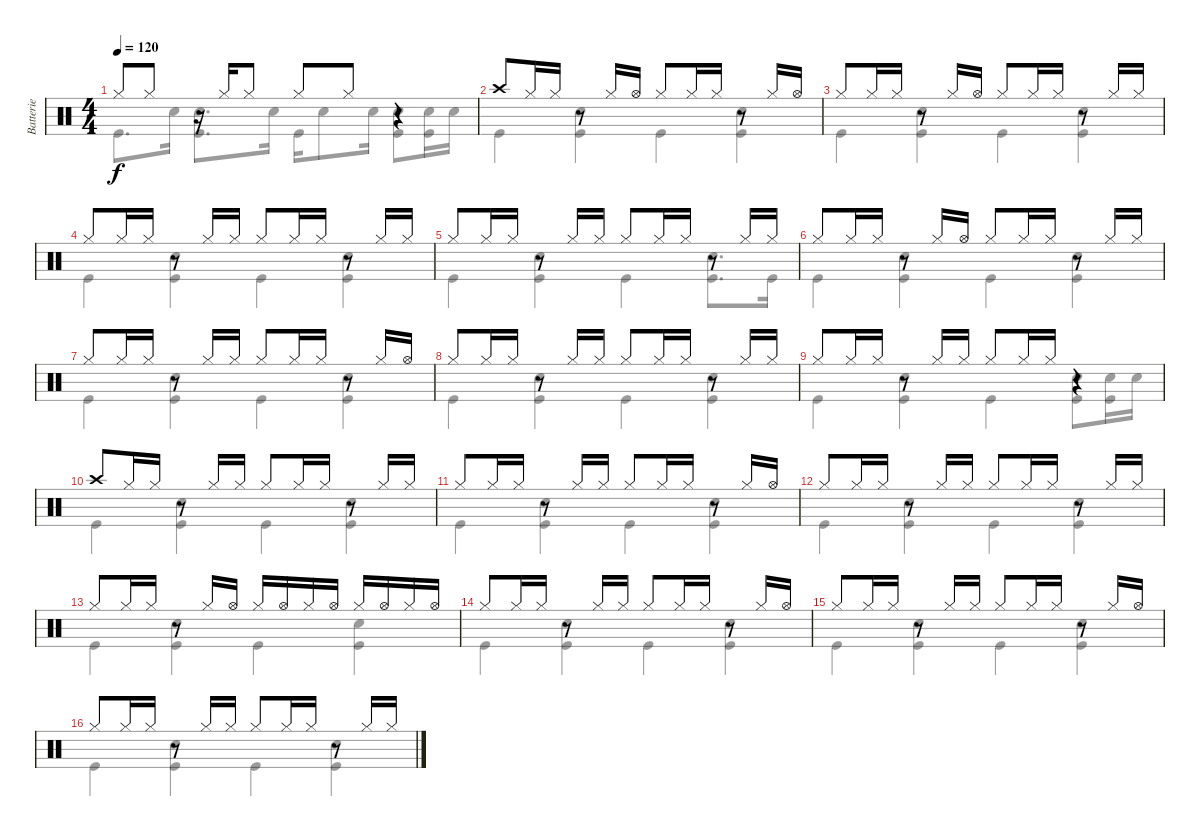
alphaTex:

\track ("Batterie" "Batterie") {instrument percussion}
\staff {score}
\articulation defaults
\voice
\ts (4 4)
\tempo 120
\clef neutral
\ks c "Hi-Hat (closed)".8{dy f} "Hi-Hat (closed)".8
r.16 "Hi-Hat (closed)".16 "Hi-Hat (closed)".8 "Hi-Hat (closed)".8 "Hi-Hat (closed)".8 r.4 |
"Crash high (hit)".8 "Hi-Hat (closed)".16 "Hi-Hat (closed)".16 r.8 "Hi-Hat (closed)".16 "Hi-Hat (open)".16 "Hi-Hat (closed)".8 "Hi-Hat (closed)".16 "Hi-Hat (closed)".16 r.8 "Hi-Hat (closed)".16 "Hi-Hat (open)".16 |
"Hi-Hat (closed)".8 "Hi-Hat (closed)".16 "Hi-Hat (closed)".16 r.8 "Hi-Hat (closed)".16 "Hi-Hat (open)".16 "Hi-Hat (closed)".8 "Hi-Hat (closed)".16 "Hi-Hat (closed)".16 r.8 "Hi-Hat (closed)".16 "Hi-Hat (closed)".16 |
"Hi-Hat (closed)".8 "Hi-Hat (closed)".16 "Hi-Hat (closed)".16 r.8 "Hi-Hat (closed)".16 "Hi-Hat (closed)".16 "Hi-Hat (closed)".8 "Hi-Hat (closed)".16 "Hi-Hat (closed)".16 r.8 "Hi-Hat (closed)".16 "Hi-Hat (closed)".16 |
"Hi-Hat (closed)".8 "Hi-Hat (closed)".16 "Hi-Hat (closed)".16 r.8 "Hi-Hat (closed)".16 "Hi-Hat (closed)".16 "Hi-Hat (closed)".8 "Hi-Hat (closed)".16 "Hi-Hat (closed)".16 r.8 "Hi-Hat (closed)".16 "Hi-Hat (closed)".16 |
"Hi-Hat (closed)".8 "Hi-Hat (closed)".16 "Hi-Hat (closed)".16 r.8 "Hi-Hat (closed)".16 "Hi-Hat (open)".16 "Hi-Hat (closed)".8 "Hi-Hat (closed)".16 "Hi-Hat (closed)".16 r.8 "Hi-Hat (closed)".16 "Hi-Hat (closed)".16 |
"Hi-Hat (closed)".8 "Hi-Hat (closed)".16 "Hi-Hat (closed)".16 r.8 "Hi-Hat (closed)".16 "Hi-Hat (closed)".16 "Hi-Hat (closed)".8 "Hi-Hat (closed)".16 "Hi-Hat (closed)".16 r.8 "Hi-Hat (closed)".16 "Hi-Hat (open)".16 |
"Hi-Hat (closed)".8 "Hi-Hat (closed)".16 "Hi-Hat (closed)".16 r.8 "Hi-Hat (closed)".16 "Hi-Hat (closed)".16 "Hi-Hat (closed)".8 "Hi-Hat (closed)".16 "Hi-Hat (closed)".16 r.8 "Hi-Hat (closed)".16 "Hi-Hat (closed)".16 |
"Hi-Hat (closed)".8 "Hi-Hat (closed)".16 "Hi-Hat (closed)".16 r.8 "Hi-Hat (closed)".16 "Hi-Hat (closed)".16 "Hi-Hat (closed)".8 "Hi-Hat (closed)".16 "Hi-Hat (closed)".16 r.4 |
"Crash high (hit)".8 "Hi-Hat (closed)".16 "Hi-Hat (closed)".16 r.8 "Hi-Hat (closed)".16 "Hi-Hat (closed)".16 "Hi-Hat (closed)".8 "Hi-Hat (closed)".16 "Hi-Hat (closed)".16 r.8 "Hi-Hat (closed)".16 "Hi-Hat (closed)".16 |
"Hi-Hat (closed)".8 "Hi-Hat (closed)".16 "Hi-Hat (closed)".16 r.8 "Hi-Hat (closed)".16 "Hi-Hat (closed)".16 "Hi-Hat (closed)".8 "Hi-Hat (closed)".16 "Hi-Hat (closed)".16 r.8 "Hi-Hat (closed)".16 "Hi-Hat (open)".16 |
"Hi-Hat (closed)".8 "Hi-Hat (closed)".16 "Hi-Hat (closed)".16 r.8 "Hi-Hat (closed)".16 "Hi-Hat (closed)".16 "Hi-Hat (closed)".8 "Hi-Hat (closed)".16 "Hi-Hat (closed)".16 r.8 "Hi-Hat (closed)".16 "Hi-Hat (closed)".16 |
"Hi-Hat (closed)".8 "Hi-Hat (closed)".16 "Hi-Hat (closed)".16 r.8 "Hi-Hat (closed)".16 "Hi-Hat (open)".16 "Hi-Hat (closed)".16 "Hi-Hat (open)".16 "Hi-Hat (closed)".16 "Hi-Hat (open)".16 "Hi-Hat (closed)".16 "Hi-Hat (open)".16 "Hi-Hat (closed)".16 "Hi-Hat (open)".16 |
"Hi-Hat (closed)".8 "Hi-Hat (closed)".16 "Hi-Hat (closed)".16 r.8 "Hi-Hat (closed)".16 "Hi-Hat (closed)".16 "Hi-Hat (closed)".8 "Hi-Hat (closed)".16 "Hi-Hat (closed)".16 r.8 "Hi-Hat (closed)".16 "Hi-Hat (open)".16 |
"Hi-Hat (closed)".8 "Hi-Hat (closed)".16 "Hi-Hat (closed)".16 r.8 "Hi-Hat (closed)".16 "Hi-Hat (closed)".16 "Hi-Hat (closed)".8 "Hi-Hat (closed)".16 "Hi-Hat (closed)".16 r.8 "Hi-Hat (closed)".16 "Hi-Hat (open)".16 |
"Hi-Hat (closed)".8 "Hi-Hat (closed)".16 "Hi-Hat (closed)".16 r.8 "Hi-Hat (closed)".16 "Hi-Hat (closed)".16 "Hi-Hat (closed)".8 "Hi-Hat (closed)".16 "Hi-Hat (closed)".16 r.8 "Hi-Hat (closed)".16 "Hi-Hat (closed)".16
\voice
\clef neutral
\ottava regular
\simile none
\ks c "Kick (hit)".8{d dy f} "Snare (hit) 2".16
("Snare (hit) 2" "Kick (hit)").8{d} "Snare (hit) 2".16 "Kick (hit)".16 "Snare (hit) 2".8 "Snare (hit) 2".16 ("Snare (hit) 2" "Kick (hit)").8 ("Snare (hit) 2" "Kick (hit)").16 "Snare (hit) 2".16 |
"Kick (hit)".4 ("Snare (hit) 2" "Kick (hit)").4 "Kick (hit)".4 ("Snare (hit) 2" "Kick (hit)").4 |
"Kick (hit)".4 ("Snare (hit) 2" "Kick (hit)").4 "Kick (hit)".4 ("Snare (hit) 2" "Kick (hit)").4 |
"Kick (hit)".4 ("Snare (hit) 2" "Kick (hit)").4 "Kick (hit)".4 ("Snare (hit) 2" "Kick (hit)").4 |
"Kick (hit)".4 ("Snare (hit) 2" "Kick (hit)").4 "Kick (hit)".4 ("Snare (hit) 2" "Kick (hit)").8{d} "Kick (hit)".16 |
"Kick (hit)".4 ("Snare (hit) 2" "Kick (hit)").4 "Kick (hit)".4 ("Snare (hit) 2" "Kick (hit)").4 |
"Kick (hit)".4 ("Snare (hit) 2" "Kick (hit)").4 "Kick (hit)".4 ("Snare (hit) 2" "Kick (hit)").4 |
"Kick (hit)".4 ("Snare (hit) 2" "Kick (hit)").4 "Kick (hit)".4 ("Snare (hit) 2" "Kick (hit)").4 |
"Kick (hit)".4 ("Snare (hit) 2" "Kick (hit)").4 "Kick (hit)".4 ("Snare (hit) 2" "Kick (hit)").8 ("Snare (hit) 2" "Kick (hit)").16 "Snare (hit) 2".16 |
"Kick (hit)".4 ("Snare (hit) 2" "Kick (hit)").4 "Kick (hit)".4 ("Snare (hit) 2" "Kick (hit)").4 |
"Kick (hit)".4 ("Snare (hit) 2" "Kick (hit)").4 "Kick (hit)".4 ("Snare (hit) 2" "Kick (hit)").4 |
"Kick (hit)".4 ("Snare (hit) 2" "Kick (hit)").4 "Kick (hit)".4 ("Snare (hit) 2" "Kick (hit)").4 |
"Kick (hit)".4 ("Snare (hit) 2" "Kick (hit)").4 "Kick (hit)".4 ("Snare (hit) 2" "Kick (hit)").4 |
"Kick (hit)".4 ("Snare (hit) 2" "Kick (hit)").4 "Kick (hit)".4 ("Snare (hit) 2" "Kick (hit)").4 |
"Kick (hit)".4 ("Snare (hit) 2" "Kick (hit)").4 "Kick (hit)".4 ("Snare (hit) 2" "Kick (hit)").4 |
"Kick (hit)".4 ("Snare (hit) 2" "Kick (hit)").4 "Kick (hit)".4 ("Snare (hit) 2" "Kick (hit)").4
